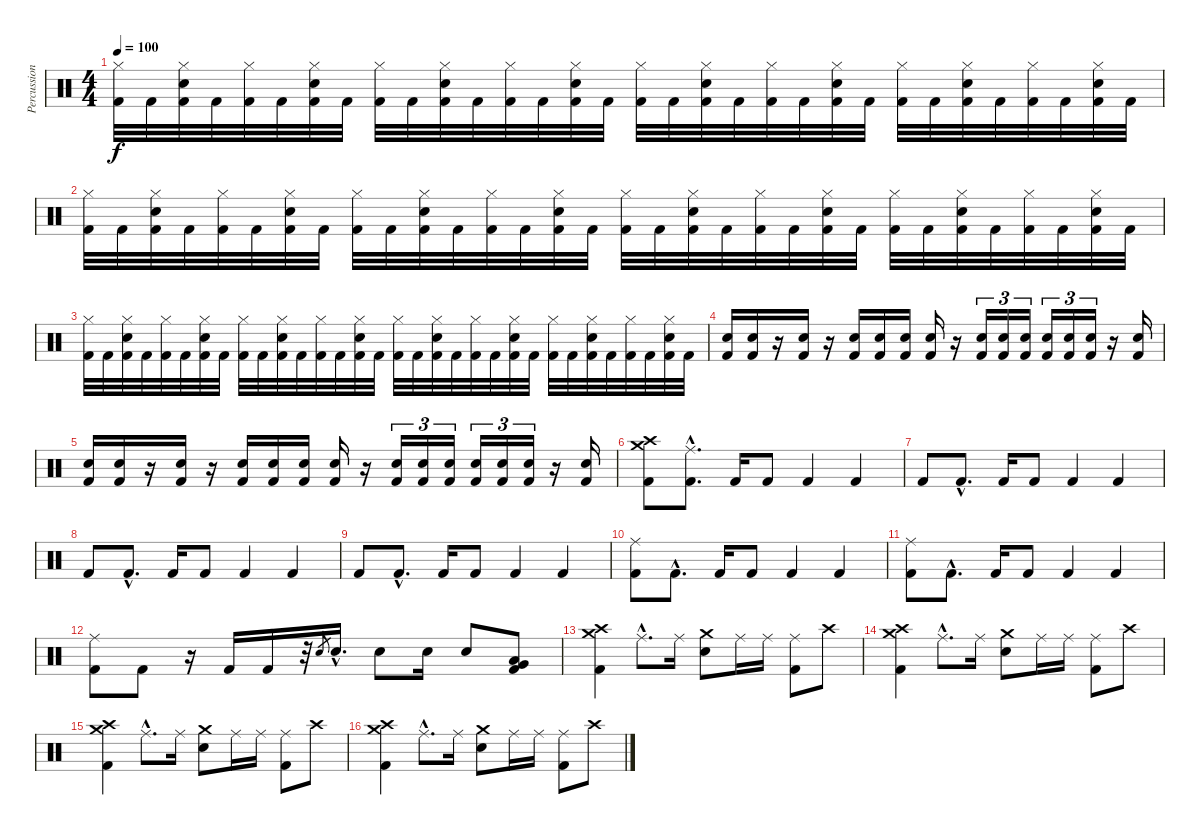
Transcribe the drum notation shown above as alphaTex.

\track ("Percussion" "Percussion") {instrument percussion}
\staff {score}
\articulation defaults
\ts (4 4)
\tempo 100
\clef neutral
\ks c
("Hi-Hat (closed)" "Kick (hit) 2").32{dy f} "Kick (hit) 2".32 ("Hi-Hat (closed)" "Snare (hit) 2" "Kick (hit) 2").32 "Kick (hit) 2".32 ("Hi-Hat (closed)" "Kick (hit) 2").32 "Kick (hit) 2".32 ("Hi-Hat (closed)" "Snare (hit) 2" "Kick (hit) 2").32 "Kick (hit) 2".32 ("Hi-Hat (closed)" "Kick (hit) 2").32 "Kick (hit) 2".32 ("Hi-Hat (closed)" "Snare (hit) 2" "Kick (hit) 2").32 "Kick (hit) 2".32 ("Hi-Hat (closed)" "Kick (hit) 2").32 "Kick (hit) 2".32 ("Hi-Hat (closed)" "Snare (hit) 2" "Kick (hit) 2").32 "Kick (hit) 2".32 ("Hi-Hat (closed)" "Kick (hit) 2").32 "Kick (hit) 2".32 ("Hi-Hat (closed)" "Snare (hit) 2" "Kick (hit) 2").32 "Kick (hit) 2".32 ("Hi-Hat (closed)" "Kick (hit) 2").32 "Kick (hit) 2".32 ("Hi-Hat (closed)" "Snare (hit) 2" "Kick (hit) 2").32 "Kick (hit) 2".32 ("Hi-Hat (closed)" "Kick (hit) 2").32 "Kick (hit) 2".32 ("Hi-Hat (closed)" "Snare (hit) 2" "Kick (hit) 2").32 "Kick (hit) 2".32 ("Hi-Hat (closed)" "Kick (hit) 2").32 "Kick (hit) 2".32 ("Hi-Hat (closed)" "Snare (hit) 2" "Kick (hit) 2").32 "Kick (hit) 2".32 |
("Hi-Hat (closed)" "Kick (hit) 2").32 "Kick (hit) 2".32 ("Hi-Hat (closed)" "Snare (hit) 2" "Kick (hit) 2").32 "Kick (hit) 2".32 ("Hi-Hat (closed)" "Kick (hit) 2").32 "Kick (hit) 2".32 ("Hi-Hat (closed)" "Snare (hit) 2" "Kick (hit) 2").32 "Kick (hit) 2".32 ("Hi-Hat (closed)" "Kick (hit) 2").32 "Kick (hit) 2".32 ("Hi-Hat (closed)" "Snare (hit) 2" "Kick (hit) 2").32 "Kick (hit) 2".32 ("Hi-Hat (closed)" "Kick (hit) 2").32 "Kick (hit) 2".32 ("Hi-Hat (closed)" "Snare (hit) 2" "Kick (hit) 2").32 "Kick (hit) 2".32 ("Hi-Hat (closed)" "Kick (hit) 2").32 "Kick (hit) 2".32 ("Hi-Hat (closed)" "Snare (hit) 2" "Kick (hit) 2").32 "Kick (hit) 2".32 ("Hi-Hat (closed)" "Kick (hit) 2").32 "Kick (hit) 2".32 ("Hi-Hat (closed)" "Snare (hit) 2" "Kick (hit) 2").32 "Kick (hit) 2".32 ("Hi-Hat (closed)" "Kick (hit) 2").32 "Kick (hit) 2".32 ("Hi-Hat (closed)" "Snare (hit) 2" "Kick (hit) 2").32 "Kick (hit) 2".32 ("Hi-Hat (closed)" "Kick (hit) 2").32 "Kick (hit) 2".32 ("Hi-Hat (closed)" "Snare (hit) 2" "Kick (hit) 2").32 "Kick (hit) 2".32 |
("Hi-Hat (closed)" "Kick (hit) 2").32 "Kick (hit) 2".32 ("Hi-Hat (closed)" "Snare (hit) 2" "Kick (hit) 2").32 "Kick (hit) 2".32 ("Hi-Hat (closed)" "Kick (hit) 2").32 "Kick (hit) 2".32 ("Hi-Hat (closed)" "Snare (hit) 2" "Kick (hit) 2").32 "Kick (hit) 2".32 ("Hi-Hat (closed)" "Kick (hit) 2").32 "Kick (hit) 2".32 ("Hi-Hat (closed)" "Snare (hit) 2" "Kick (hit) 2").32 "Kick (hit) 2".32 ("Hi-Hat (closed)" "Kick (hit) 2").32 "Kick (hit) 2".32 ("Hi-Hat (closed)" "Snare (hit) 2" "Kick (hit) 2").32 "Kick (hit) 2".32 ("Hi-Hat (closed)" "Kick (hit) 2").32 "Kick (hit) 2".32 ("Hi-Hat (closed)" "Snare (hit) 2" "Kick (hit) 2").32 "Kick (hit) 2".32 ("Hi-Hat (closed)" "Kick (hit) 2").32 "Kick (hit) 2".32 ("Hi-Hat (closed)" "Snare (hit) 2" "Kick (hit) 2").32 "Kick (hit) 2".32 ("Hi-Hat (closed)" "Kick (hit) 2").32 "Kick (hit) 2".32 ("Hi-Hat (closed)" "Snare (hit) 2" "Kick (hit) 2").32 "Kick (hit) 2".32 ("Hi-Hat (closed)" "Kick (hit) 2").32 "Kick (hit) 2".32 ("Hi-Hat (closed)" "Snare (hit) 2" "Kick (hit) 2").32 "Kick (hit) 2".32 |
("Snare (hit) 2" "Kick (hit) 2").16 ("Snare (hit) 2" "Kick (hit) 2").16 r.16 ("Snare (hit) 2" "Kick (hit) 2").16 r.16 ("Snare (hit) 2" "Kick (hit) 2").16 ("Snare (hit) 2" "Kick (hit) 2").16 ("Snare (hit) 2" "Kick (hit) 2").16 ("Snare (hit) 2" "Kick (hit) 2").16 r.16 ("Snare (hit) 2" "Kick (hit) 2").16{tu (3 2)} ("Snare (hit) 2" "Kick (hit) 2").16{tu (3 2)} ("Snare (hit) 2" "Kick (hit) 2").16{tu (3 2)} ("Snare (hit) 2" "Kick (hit) 2").16{tu (3 2)} ("Snare (hit) 2" "Kick (hit) 2").16{tu (3 2)} ("Snare (hit) 2" "Kick (hit) 2").16{tu (3 2)} r.16 ("Snare (hit) 2" "Kick (hit) 2").16 |
("Snare (hit) 2" "Kick (hit) 2").16 ("Snare (hit) 2" "Kick (hit) 2").16 r.16 ("Snare (hit) 2" "Kick (hit) 2").16 r.16 ("Snare (hit) 2" "Kick (hit) 2").16 ("Snare (hit) 2" "Kick (hit) 2").16 ("Snare (hit) 2" "Kick (hit) 2").16 ("Snare (hit) 2" "Kick (hit) 2").16 r.16 ("Snare (hit) 2" "Kick (hit) 2").16{tu (3 2)} ("Snare (hit) 2" "Kick (hit) 2").16{tu (3 2)} ("Snare (hit) 2" "Kick (hit) 2").16{tu (3 2)} ("Snare (hit) 2" "Kick (hit) 2").16{tu (3 2)} ("Snare (hit) 2" "Kick (hit) 2").16{tu (3 2)} ("Snare (hit) 2" "Kick (hit) 2").16{tu (3 2)} r.16 ("Snare (hit) 2" "Kick (hit) 2").16 |
("Crash high (hit)" "Crash medium (hit)" "Kick (hit) 2").8 ("Ride (middle)"{hac} "Kick (hit) 2"{hac}).8{d} "Kick (hit) 2".16 "Kick (hit) 2".8 "Kick (hit) 2".4 "Kick (hit) 2".4 |
"Kick (hit) 2".8 "Kick (hit) 2"{hac}.8{d} "Kick (hit) 2".16 "Kick (hit) 2".8 "Kick (hit) 2".4 "Kick (hit) 2".4 |
"Kick (hit) 2".8 "Kick (hit) 2"{hac}.8{d} "Kick (hit) 2".16 "Kick (hit) 2".8 "Kick (hit) 2".4 "Kick (hit) 2".4 |
"Kick (hit) 2".8 "Kick (hit) 2"{hac}.8{d} "Kick (hit) 2".16 "Kick (hit) 2".8 "Kick (hit) 2".4 "Kick (hit) 2".4 |
("Ride (middle)" "Kick (hit) 2").8 "Kick (hit) 2"{hac}.8{d} "Kick (hit) 2".16 "Kick (hit) 2".8 "Kick (hit) 2".4 "Kick (hit) 2".4 |
("Ride (middle)" "Kick (hit) 2").8 "Kick (hit) 2"{hac}.8{d} "Kick (hit) 2".16 "Kick (hit) 2".8 "Kick (hit) 2".4 "Kick (hit) 2".4 |
("Ride (middle)" "Kick (hit) 2").8 "Kick (hit) 2".8 r.16 "Kick (hit) 2".16 "Kick (hit) 2".16 r.32 "Snare (hit) 2".8{gr} "Snare (hit) 2"{hac}.16{d} "Snare (hit) 2".8 "Snare (hit) 2".16 "Snare (hit) 2".8 ("Very Low Tom (hit)" "Low Tom (hit)" "Kick (hit) 2").8 |
("Crash medium (hit)" "Crash high (hit)" "Kick (hit) 2").4 "Ride (middle)"{hac}.8{d} "Ride (middle)".16 ("Crash medium (hit)" "Snare (hit) 2").8 "Ride (middle)".16 "Ride (middle)".16 ("Ride (middle)" "Kick (hit) 2").8 "Crash high (hit)".8 |
("Crash medium (hit)" "Crash high (hit)" "Kick (hit) 2").4 "Ride (middle)"{hac}.8{d} "Ride (middle)".16 ("Crash medium (hit)" "Snare (hit) 2").8 "Ride (middle)".16 "Ride (middle)".16 ("Ride (middle)" "Kick (hit) 2").8 "Crash high (hit)".8 |
("Crash medium (hit)" "Crash high (hit)" "Kick (hit) 2").4 "Ride (middle)"{hac}.8{d} "Ride (middle)".16 ("Crash medium (hit)" "Snare (hit) 2").8 "Ride (middle)".16 "Ride (middle)".16 ("Ride (middle)" "Kick (hit) 2").8 "Crash high (hit)".8 |
("Crash medium (hit)" "Crash high (hit)" "Kick (hit) 2").4 "Ride (middle)"{hac}.8{d} "Ride (middle)".16 ("Crash medium (hit)" "Snare (hit) 2").8 "Ride (middle)".16 "Ride (middle)".16 ("Ride (middle)" "Kick (hit) 2").8 "Crash high (hit)".8
